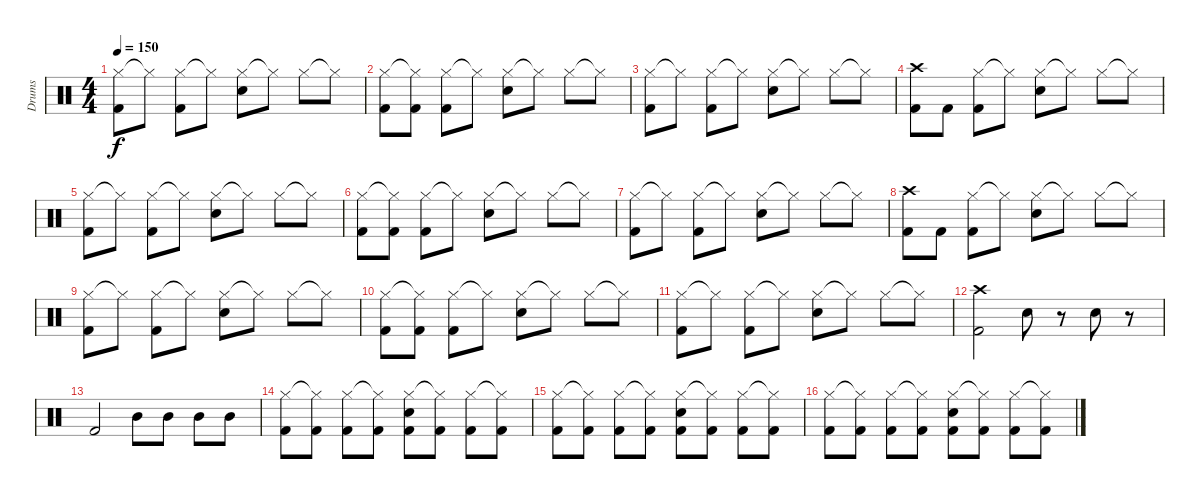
\track ("Drums" "Drums") {instrument percussion}
\staff {score}
\articulation defaults
\ts (4 4)
\tempo 150
\clef neutral
\ks c
("Hi-Hat (closed)" "Kick (hit) 2").8{dy f} "Hi-Hat (closed)"{t}.8 ("Hi-Hat (closed)" "Kick (hit) 2").8 "Hi-Hat (closed)"{t}.8 ("Hi-Hat (closed)" "Snare (hit) 2").8 "Hi-Hat (closed)"{t}.8 "Hi-Hat (closed)".8 "Hi-Hat (closed)"{t}.8 |
("Hi-Hat (closed)" "Kick (hit) 2").8 ("Hi-Hat (closed)"{t} "Kick (hit) 2").8 ("Hi-Hat (closed)" "Kick (hit) 2").8 "Hi-Hat (closed)"{t}.8 ("Hi-Hat (closed)" "Snare (hit) 2").8 "Hi-Hat (closed)"{t}.8 "Hi-Hat (closed)".8 "Hi-Hat (closed)"{t}.8 |
("Hi-Hat (closed)" "Kick (hit) 2").8 "Hi-Hat (closed)"{t}.8 ("Hi-Hat (closed)" "Kick (hit) 2").8 "Hi-Hat (closed)"{t}.8 ("Hi-Hat (closed)" "Snare (hit) 2").8 "Hi-Hat (closed)"{t}.8 "Hi-Hat (closed)".8 "Hi-Hat (closed)"{t}.8 |
("Kick (hit) 2" "Crash high (hit)").8 "Kick (hit) 2".8 ("Hi-Hat (closed)" "Kick (hit) 2").8 "Hi-Hat (closed)"{t}.8 ("Hi-Hat (closed)" "Snare (hit) 2").8 "Hi-Hat (closed)"{t}.8 "Hi-Hat (closed)".8 "Hi-Hat (closed)"{t}.8 |
("Hi-Hat (closed)" "Kick (hit) 2").8 "Hi-Hat (closed)"{t}.8 ("Hi-Hat (closed)" "Kick (hit) 2").8 "Hi-Hat (closed)"{t}.8 ("Hi-Hat (closed)" "Snare (hit) 2").8 "Hi-Hat (closed)"{t}.8 "Hi-Hat (closed)".8 "Hi-Hat (closed)"{t}.8 |
("Hi-Hat (closed)" "Kick (hit) 2").8 ("Hi-Hat (closed)"{t} "Kick (hit) 2").8 ("Hi-Hat (closed)" "Kick (hit) 2").8 "Hi-Hat (closed)"{t}.8 ("Hi-Hat (closed)" "Snare (hit) 2").8 "Hi-Hat (closed)"{t}.8 "Hi-Hat (closed)".8 "Hi-Hat (closed)"{t}.8 |
("Hi-Hat (closed)" "Kick (hit) 2").8 "Hi-Hat (closed)"{t}.8 ("Hi-Hat (closed)" "Kick (hit) 2").8 "Hi-Hat (closed)"{t}.8 ("Hi-Hat (closed)" "Snare (hit) 2").8 "Hi-Hat (closed)"{t}.8 "Hi-Hat (closed)".8 "Hi-Hat (closed)"{t}.8 |
("Kick (hit) 2" "Crash high (hit)").8 "Kick (hit) 2".8 ("Hi-Hat (closed)" "Kick (hit) 2").8 "Hi-Hat (closed)"{t}.8 ("Hi-Hat (closed)" "Snare (hit) 2").8 "Hi-Hat (closed)"{t}.8 "Hi-Hat (closed)".8 "Hi-Hat (closed)"{t}.8 |
("Hi-Hat (closed)" "Kick (hit) 2").8 "Hi-Hat (closed)"{t}.8 ("Hi-Hat (closed)" "Kick (hit) 2").8 "Hi-Hat (closed)"{t}.8 ("Hi-Hat (closed)" "Snare (hit) 2").8 "Hi-Hat (closed)"{t}.8 "Hi-Hat (closed)".8 "Hi-Hat (closed)"{t}.8 |
("Hi-Hat (closed)" "Kick (hit) 2").8 ("Hi-Hat (closed)"{t} "Kick (hit) 2").8 ("Hi-Hat (closed)" "Kick (hit) 2").8 "Hi-Hat (closed)"{t}.8 ("Hi-Hat (closed)" "Snare (hit) 2").8 "Hi-Hat (closed)"{t}.8 "Hi-Hat (closed)".8 "Hi-Hat (closed)"{t}.8 |
("Hi-Hat (closed)" "Kick (hit) 2").8 "Hi-Hat (closed)"{t}.8 ("Hi-Hat (closed)" "Kick (hit) 2").8 "Hi-Hat (closed)"{t}.8 ("Hi-Hat (closed)" "Snare (hit) 2").8 "Hi-Hat (closed)"{t}.8 "Hi-Hat (closed)".8 "Hi-Hat (closed)"{t}.8 |
("Kick (hit) 2" "Crash high (hit)").2 "Snare (hit) 2".8 r.8 "Snare (hit) 2".8 r.8 |
"Kick (hit) 2".2 "Mid Tom (hit)".8 "Mid Tom (hit)".8 "Mid Tom (hit)".8 "Mid Tom (hit)".8 |
("Hi-Hat (closed)" "Kick (hit) 2").8 ("Hi-Hat (closed)"{t} "Kick (hit) 2").8 ("Hi-Hat (closed)" "Kick (hit) 2").8 ("Hi-Hat (closed)"{t} "Kick (hit) 2").8 ("Hi-Hat (closed)" "Kick (hit) 2" "Snare (hit) 2").8 ("Hi-Hat (closed)"{t} "Kick (hit) 2").8 ("Hi-Hat (closed)" "Kick (hit) 2").8 ("Hi-Hat (closed)"{t} "Kick (hit) 2").8 |
("Hi-Hat (closed)" "Kick (hit) 2").8 ("Hi-Hat (closed)"{t} "Kick (hit) 2").8 ("Hi-Hat (closed)" "Kick (hit) 2").8 ("Hi-Hat (closed)"{t} "Kick (hit) 2").8 ("Hi-Hat (closed)" "Kick (hit) 2" "Snare (hit) 2").8 ("Hi-Hat (closed)"{t} "Kick (hit) 2").8 ("Hi-Hat (closed)" "Kick (hit) 2").8 ("Hi-Hat (closed)"{t} "Kick (hit) 2").8 |
("Hi-Hat (closed)" "Kick (hit) 2").8 ("Hi-Hat (closed)"{t} "Kick (hit) 2").8 ("Hi-Hat (closed)" "Kick (hit) 2").8 ("Hi-Hat (closed)"{t} "Kick (hit) 2").8 ("Hi-Hat (closed)" "Kick (hit) 2" "Snare (hit) 2").8 ("Hi-Hat (closed)"{t} "Kick (hit) 2").8 ("Hi-Hat (closed)" "Kick (hit) 2").8 ("Hi-Hat (closed)"{t} "Kick (hit) 2").8
